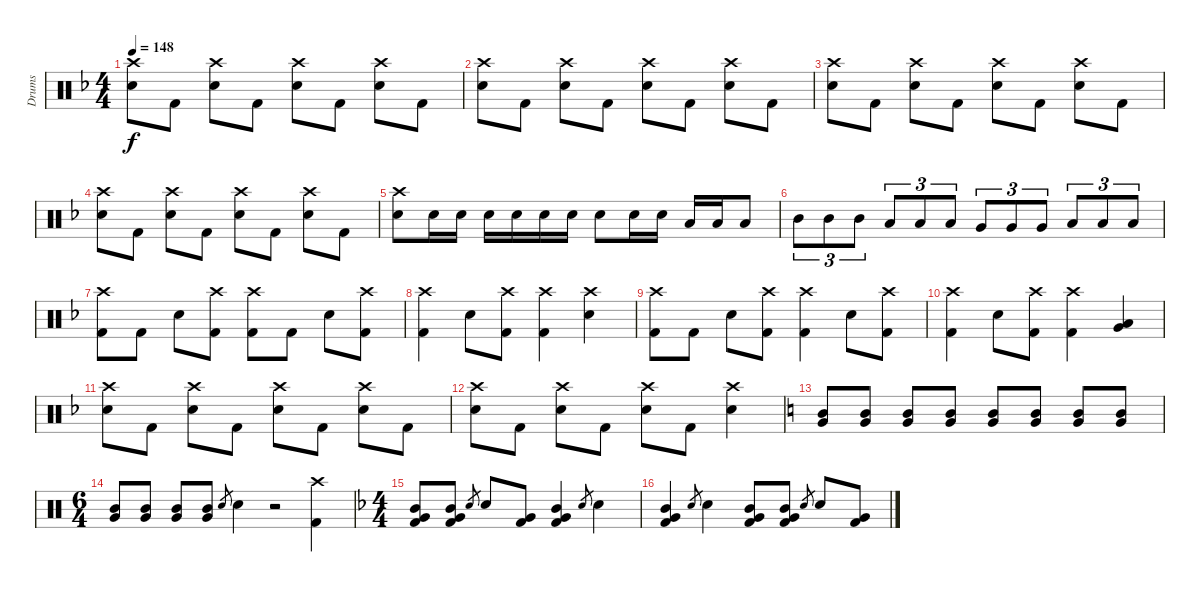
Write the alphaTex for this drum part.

\track ("Drums" "Drums") {instrument percussion}
\staff {score}
\articulation defaults
\ts (4 4)
\tempo 148
\clef neutral
\ks f
("Crash high (hit)" "Snare (hit) 2").8{dy f} "Kick (hit) 2".8 ("Crash high (hit)" "Snare (hit) 2").8 "Kick (hit) 2".8 ("Crash high (hit)" "Snare (hit) 2").8 "Kick (hit) 2".8 ("Crash high (hit)" "Snare (hit) 2").8 "Kick (hit) 2".8 |
("Crash high (hit)" "Snare (hit) 2").8 "Kick (hit) 2".8 ("Crash high (hit)" "Snare (hit) 2").8 "Kick (hit) 2".8 ("Crash high (hit)" "Snare (hit) 2").8 "Kick (hit) 2".8 ("Crash high (hit)" "Snare (hit) 2").8 "Kick (hit) 2".8 |
("Crash high (hit)" "Snare (hit) 2").8 "Kick (hit) 2".8 ("Crash high (hit)" "Snare (hit) 2").8 "Kick (hit) 2".8 ("Crash high (hit)" "Snare (hit) 2").8 "Kick (hit) 2".8 ("Crash high (hit)" "Snare (hit) 2").8 "Kick (hit) 2".8 |
("Crash high (hit)" "Snare (hit) 2").8 "Kick (hit) 2".8 ("Crash high (hit)" "Snare (hit) 2").8 "Kick (hit) 2".8 ("Crash high (hit)" "Snare (hit) 2").8 "Kick (hit) 2".8 ("Crash high (hit)" "Snare (hit) 2").8 "Kick (hit) 2".8 |
("Crash high (hit)" "Snare (hit) 2").8 "Snare (hit) 2".16 "Snare (hit) 2".16 "Snare (hit) 2".16 "Snare (hit) 2".16 "Snare (hit) 2".16 "Snare (hit) 2".16 "Snare (hit) 2".8 "Snare (hit) 2".16 "Snare (hit) 2".16 "Low Tom (hit)".16 "Low Tom (hit)".16 "Low Tom (hit)".8 |
"Mid Tom (hit)".8{tu (3 2)} "Mid Tom (hit)".8{tu (3 2)} "Mid Tom (hit)".8{tu (3 2)} "Low Tom (hit)".8{tu (3 2)} "Low Tom (hit)".8{tu (3 2)} "Low Tom (hit)".8{tu (3 2)} "Very Low Tom (hit)".8{tu (3 2)} "Very Low Tom (hit)".8{tu (3 2)} "Very Low Tom (hit)".8{tu (3 2)} "Low Floor Tom (hit)".8{tu (3 2)} "Low Floor Tom (hit)".8{tu (3 2)} "Low Floor Tom (hit)".8{tu (3 2)} |
("Crash high (hit)" "Kick (hit) 2").8 "Kick (hit) 2".8 "Snare (hit) 2".8 ("Crash high (hit)" "Kick (hit) 2").8 ("Crash high (hit)" "Kick (hit) 2").8 "Kick (hit) 2".8 "Snare (hit) 2".8 ("Crash high (hit)" "Kick (hit) 2").8 |
("Crash high (hit)" "Kick (hit) 2").4 "Snare (hit) 2".8 ("Crash high (hit)" "Kick (hit) 2").8 ("Crash high (hit)" "Kick (hit) 2").4 ("Crash high (hit)" "Snare (hit) 2").4 |
("Crash high (hit)" "Kick (hit) 2").8 "Kick (hit) 2".8 "Snare (hit) 2".8 ("Crash high (hit)" "Kick (hit) 2").8 ("Crash high (hit)" "Kick (hit) 2").4 "Snare (hit) 2".8 ("Crash high (hit)" "Kick (hit) 2").8 |
("Crash high (hit)" "Kick (hit) 2").4 "Snare (hit) 2".8 ("Crash high (hit)" "Kick (hit) 2").8 ("Crash high (hit)" "Kick (hit) 2").4 ("Low Tom (hit)" "Very Low Tom (hit)").4 |
("Crash high (hit)" "Snare (hit) 2").8 "Kick (hit) 2".8 ("Crash high (hit)" "Snare (hit) 2").8 "Kick (hit) 2".8 ("Crash high (hit)" "Snare (hit) 2").8 "Kick (hit) 2".8 ("Crash high (hit)" "Snare (hit) 2").8 "Kick (hit) 2".8 |
("Crash high (hit)" "Snare (hit) 2").8 "Kick (hit) 2".8 ("Crash high (hit)" "Snare (hit) 2").8 "Kick (hit) 2".8 ("Crash high (hit)" "Snare (hit) 2").8 "Kick (hit) 2".8 ("Crash high (hit)" "Snare (hit) 2").4 |
\ks c
("Mid Tom (hit)" "Very Low Tom (hit)").8 ("Mid Tom (hit)" "Very Low Tom (hit)").8 ("Mid Tom (hit)" "Very Low Tom (hit)").8 ("Mid Tom (hit)" "Very Low Tom (hit)").8 ("Mid Tom (hit)" "Very Low Tom (hit)").8 ("Mid Tom (hit)" "Very Low Tom (hit)").8 ("Mid Tom (hit)" "Very Low Tom (hit)").8 ("Mid Tom (hit)" "Very Low Tom (hit)").8 |
\ts (6 4)
("Mid Tom (hit)" "Very Low Tom (hit)").8 ("Mid Tom (hit)" "Very Low Tom (hit)").8 ("Mid Tom (hit)" "Very Low Tom (hit)").8 ("Mid Tom (hit)" "Very Low Tom (hit)").8 "Snare (hit) 2".8{gr} "Snare (hit) 2".4 r.2 ("Crash high (hit)" "Kick (hit) 2").4 |
\ts (4 4)
\ks f
("Mid Tom (hit)" "Very Low Tom (hit)" "Kick (hit) 2").8 ("Mid Tom (hit)" "Very Low Tom (hit)" "Kick (hit) 2").8 "Snare (hit) 2".8{gr} "Snare (hit) 2".8 ("Very Low Tom (hit)" "Kick (hit) 2").8 ("Mid Tom (hit)" "Very Low Tom (hit)" "Kick (hit) 2").4 "Snare (hit) 2".8{gr} "Snare (hit) 2".4 |
("Mid Tom (hit)" "Very Low Tom (hit)" "Kick (hit) 2").4 "Snare (hit) 2".8{gr} "Snare (hit) 2".4 ("Mid Tom (hit)" "Very Low Tom (hit)" "Kick (hit) 2").8 ("Mid Tom (hit)" "Very Low Tom (hit)" "Kick (hit) 2").8 "Snare (hit) 2".8{gr} "Snare (hit) 2".8 ("Very Low Tom (hit)" "Kick (hit) 2").8
